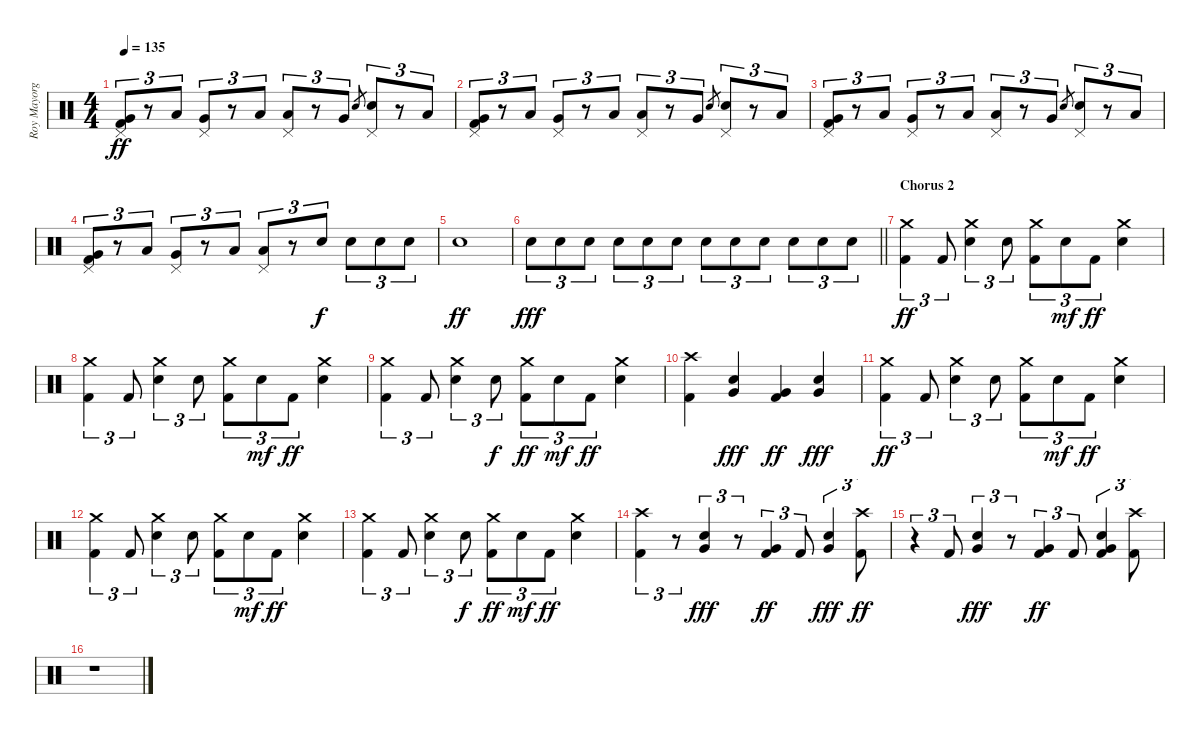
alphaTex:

\track ("Roy Mayorga" "Roy Mayorg") {instrument percussion}
\staff {score}
\articulation defaults
\ts (4 4)
\tempo 135
\clef neutral
\ks c
("Pedal Hi-Hat (hit)" "Very Low Tom (hit)" "Kick (hit) 2").8{tu (3 2) dy ff} r.8{tu (3 2)} "Low Tom (hit)".8{tu (3 2)} ("Very Low Tom (hit)" "Pedal Hi-Hat (hit)").8{tu (3 2)} r.8{tu (3 2)} "Low Tom (hit)".8{tu (3 2)} ("Low Floor Tom (hit)" "Pedal Hi-Hat (hit)").8{tu (3 2)} r.8{tu (3 2)} "Very Low Tom (hit)".8{tu (3 2)} "Electric Snare (hit)".8{gr} ("Electric Snare (hit)" "Pedal Hi-Hat (hit)").8{tu (3 2)} r.8{tu (3 2)} "Low Floor Tom (hit)".8{tu (3 2)} |
("Pedal Hi-Hat (hit)" "Very Low Tom (hit)" "Kick (hit) 2").8{tu (3 2)} r.8{tu (3 2)} "Low Tom (hit)".8{tu (3 2)} ("Very Low Tom (hit)" "Pedal Hi-Hat (hit)").8{tu (3 2)} r.8{tu (3 2)} "Low Tom (hit)".8{tu (3 2)} ("Low Floor Tom (hit)" "Pedal Hi-Hat (hit)").8{tu (3 2)} r.8{tu (3 2)} "Very Low Tom (hit)".8{tu (3 2)} "Electric Snare (hit)".8{gr} ("Electric Snare (hit)" "Pedal Hi-Hat (hit)").8{tu (3 2)} r.8{tu (3 2)} "Low Floor Tom (hit)".8{tu (3 2)} |
("Pedal Hi-Hat (hit)" "Very Low Tom (hit)" "Kick (hit) 2").8{tu (3 2)} r.8{tu (3 2)} "Low Tom (hit)".8{tu (3 2)} ("Very Low Tom (hit)" "Pedal Hi-Hat (hit)").8{tu (3 2)} r.8{tu (3 2)} "Low Tom (hit)".8{tu (3 2)} ("Low Floor Tom (hit)" "Pedal Hi-Hat (hit)").8{tu (3 2)} r.8{tu (3 2)} "Very Low Tom (hit)".8{tu (3 2)} "Electric Snare (hit)".8{gr} ("Electric Snare (hit)" "Pedal Hi-Hat (hit)").8{tu (3 2)} r.8{tu (3 2)} "Low Floor Tom (hit)".8{tu (3 2)} |
("Pedal Hi-Hat (hit)" "Very Low Tom (hit)" "Kick (hit) 2").8{tu (3 2)} r.8{tu (3 2)} "Low Tom (hit)".8{tu (3 2)} ("Very Low Tom (hit)" "Pedal Hi-Hat (hit)").8{tu (3 2)} r.8{tu (3 2)} "Low Tom (hit)".8{tu (3 2)} ("Low Floor Tom (hit)" "Pedal Hi-Hat (hit)").8{tu (3 2)} r.8{tu (3 2)} "Electric Snare (hit)".8{tu (3 2) dy f} "Electric Snare (hit)".8{tu (3 2)} "Electric Snare (hit)".8{tu (3 2)} "Electric Snare (hit)".8{tu (3 2)} |
"Electric Snare (hit)".1{dy ff} |
\barLineRight lightlight "Electric Snare (hit)".8{tu (3 2) dy fff} "Electric Snare (hit)".8{tu (3 2)} "Electric Snare (hit)".8{tu (3 2)} "Electric Snare (hit)".8{tu (3 2)} "Electric Snare (hit)".8{tu (3 2)} "Electric Snare (hit)".8{tu (3 2)} "Electric Snare (hit)".8{tu (3 2)} "Electric Snare (hit)".8{tu (3 2)} "Electric Snare (hit)".8{tu (3 2)} "Electric Snare (hit)".8{tu (3 2)} "Electric Snare (hit)".8{tu (3 2)} "Electric Snare (hit)".8{tu (3 2)}
|
\section ("" "Chorus 2")
("Crash medium (hit)" "Kick (hit) 2").4{tu (3 2) dy ff} "Kick (hit) 2".8{tu (3 2)} ("Crash medium (hit)" "Electric Snare (hit)").4{tu (3 2)} "Electric Snare (hit)".8{tu (3 2)} ("Crash medium (hit)" "Kick (hit) 2").8{tu (3 2)} "Electric Snare (hit)".8{tu (3 2) dy mf} "Kick (hit) 2".8{tu (3 2) dy ff} ("Crash medium (hit)" "Electric Snare (hit)").4 |
("Crash medium (hit)" "Kick (hit) 2").4{tu (3 2)} "Kick (hit) 2".8{tu (3 2)} ("Crash medium (hit)" "Electric Snare (hit)").4{tu (3 2)} "Electric Snare (hit)".8{tu (3 2)} ("Crash medium (hit)" "Kick (hit) 2").8{tu (3 2)} "Electric Snare (hit)".8{tu (3 2) dy mf} "Kick (hit) 2".8{tu (3 2) dy ff} ("Crash medium (hit)" "Electric Snare (hit)").4 |
("Crash medium (hit)" "Kick (hit) 2").4{tu (3 2)} "Kick (hit) 2".8{tu (3 2)} ("Crash medium (hit)" "Electric Snare (hit)").4{tu (3 2)} "Electric Snare (hit)".8{tu (3 2) dy f} ("Crash medium (hit)" "Kick (hit) 2").8{tu (3 2) dy ff} "Electric Snare (hit)".8{tu (3 2) dy mf} "Kick (hit) 2".8{tu (3 2) dy ff} ("Crash medium (hit)" "Electric Snare (hit)").4 |
("Crash high (hit)" "Kick (hit) 2").4 ("Electric Snare (hit)" "Very Low Tom (hit)").4{dy fff} ("Very Low Tom (hit)" "Kick (hit) 2").4{dy ff} ("Electric Snare (hit)" "Very Low Tom (hit)").4{dy fff} |
("Crash medium (hit)" "Kick (hit) 2").4{tu (3 2) dy ff} "Kick (hit) 2".8{tu (3 2)} ("Crash medium (hit)" "Electric Snare (hit)").4{tu (3 2)} "Electric Snare (hit)".8{tu (3 2)} ("Crash medium (hit)" "Kick (hit) 2").8{tu (3 2)} "Electric Snare (hit)".8{tu (3 2) dy mf} "Kick (hit) 2".8{tu (3 2) dy ff} ("Crash medium (hit)" "Electric Snare (hit)").4 |
("Crash medium (hit)" "Kick (hit) 2").4{tu (3 2)} "Kick (hit) 2".8{tu (3 2)} ("Crash medium (hit)" "Electric Snare (hit)").4{tu (3 2)} "Electric Snare (hit)".8{tu (3 2)} ("Crash medium (hit)" "Kick (hit) 2").8{tu (3 2)} "Electric Snare (hit)".8{tu (3 2) dy mf} "Kick (hit) 2".8{tu (3 2) dy ff} ("Crash medium (hit)" "Electric Snare (hit)").4 |
("Crash medium (hit)" "Kick (hit) 2").4{tu (3 2)} "Kick (hit) 2".8{tu (3 2)} ("Crash medium (hit)" "Electric Snare (hit)").4{tu (3 2)} "Electric Snare (hit)".8{tu (3 2) dy f} ("Crash medium (hit)" "Kick (hit) 2").8{tu (3 2) dy ff} "Electric Snare (hit)".8{tu (3 2) dy mf} "Kick (hit) 2".8{tu (3 2) dy ff} ("Crash medium (hit)" "Electric Snare (hit)").4 |
("Crash high (hit)" "Kick (hit) 2").4{tu (3 2)} r.8{tu (3 2)} ("Electric Snare (hit)" "Very Low Tom (hit)").4{tu (3 2) dy fff} r.8{tu (3 2)} ("Very Low Tom (hit)" "Kick (hit) 2").4{tu (3 2) dy ff} "Kick (hit) 2".8{tu (3 2)} ("Electric Snare (hit)" "Very Low Tom (hit)").4{tu (3 2) dy fff} ("Crash high (hit)" "Kick (hit) 2").8{tu (3 2) dy ff} |
r.4{tu (3 2)} "Kick (hit) 2".8{tu (3 2)} ("Electric Snare (hit)" "Very Low Tom (hit)").4{tu (3 2) dy fff} r.8{tu (3 2)} ("Very Low Tom (hit)" "Kick (hit) 2").4{tu (3 2) dy ff} "Kick (hit) 2".8{tu (3 2)} ("Electric Snare (hit)" "Very Low Tom (hit)" "Kick (hit) 2").4{tu (3 2)} ("Crash high (hit)" "Kick (hit) 2").8{tu (3 2)} |
r.1
